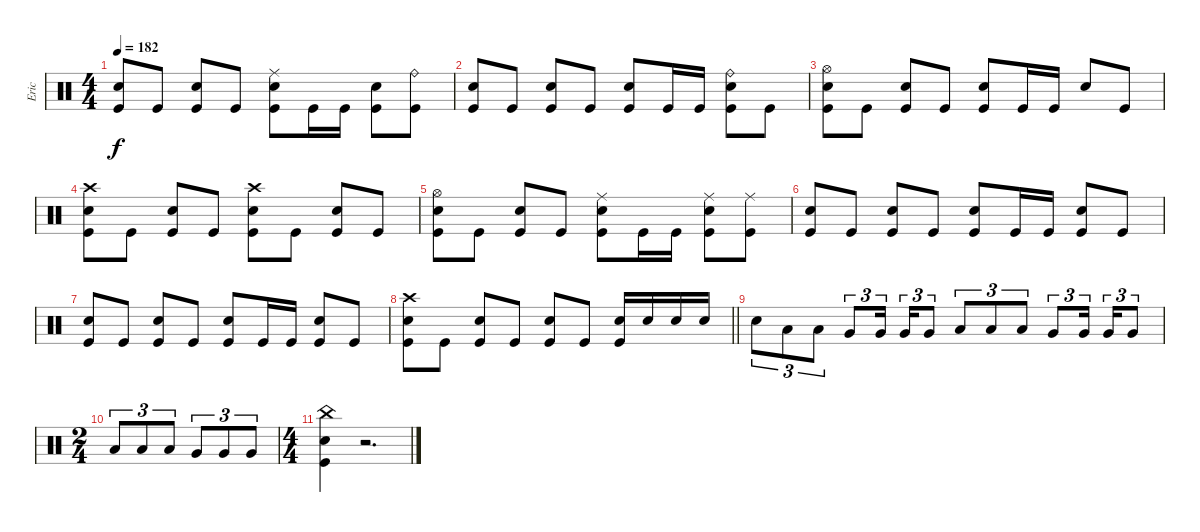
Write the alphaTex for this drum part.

\track ("Eric" "Eric") {instrument percussion}
\staff {score}
\articulation defaults
\ts (4 4)
\tempo 182
\clef neutral
\ks c
("Snare (hit) 2" "Kick (hit)").8{dy f} "Kick (hit)".8 ("Snare (hit) 2" "Kick (hit)").8 "Kick (hit)".8 ("Ride (middle)" "Snare (hit) 2" "Kick (hit)").8 "Kick (hit)".16 "Kick (hit)".16 ("Snare (hit) 2" "Kick (hit)").8 ("Ride (bell)" "Kick (hit)").8 |
("Snare (hit) 2" "Kick (hit)").8 "Kick (hit)".8 ("Snare (hit) 2" "Kick (hit)").8 "Kick (hit)".8 ("Snare (hit) 2" "Kick (hit)").8 "Kick (hit)".16 "Kick (hit)".16 ("Ride (bell)" "Snare (hit) 2" "Kick (hit)").8 "Kick (hit)".8 |
("Hi-Hat (open)" "Snare (hit) 2" "Kick (hit)").8 "Kick (hit)".8 ("Snare (hit) 2" "Kick (hit)").8 "Kick (hit)".8 ("Snare (hit) 2" "Kick (hit)").8 "Kick (hit)".16 "Kick (hit)".16 "Snare (hit) 2".8 "Kick (hit)".8 |
("Crash high (hit)" "Snare (hit) 2" "Kick (hit)").8 "Kick (hit)".8 ("Snare (hit) 2" "Kick (hit)").8 "Kick (hit)".8 ("Crash high (hit)" "Snare (hit) 2" "Kick (hit)").8 "Kick (hit)".8 ("Snare (hit) 2" "Kick (hit)").8 "Kick (hit)".8 |
("Hi-Hat (open)" "Snare (hit) 2" "Kick (hit)").8 "Kick (hit)".8 ("Snare (hit) 2" "Kick (hit)").8 "Kick (hit)".8 ("Ride (middle)" "Snare (hit) 2" "Kick (hit)").8 "Kick (hit)".16 "Kick (hit)".16 ("Ride (middle)" "Snare (hit) 2" "Kick (hit)").8 ("Ride (middle)" "Kick (hit)").8 |
("Snare (hit) 2" "Kick (hit)").8 "Kick (hit)".8 ("Snare (hit) 2" "Kick (hit)").8 "Kick (hit)".8 ("Snare (hit) 2" "Kick (hit)").8 "Kick (hit)".16 "Kick (hit)".16 ("Snare (hit) 2" "Kick (hit)").8 "Kick (hit)".8 |
("Snare (hit) 2" "Kick (hit)").8 "Kick (hit)".8 ("Snare (hit) 2" "Kick (hit)").8 "Kick (hit)".8 ("Snare (hit) 2" "Kick (hit)").8 "Kick (hit)".16 "Kick (hit)".16 ("Snare (hit) 2" "Kick (hit)").8 "Kick (hit)".8 |
\barLineRight lightlight
("Crash high (hit)" "Snare (hit) 2" "Kick (hit)").8 "Kick (hit)".8 ("Snare (hit) 2" "Kick (hit)").8 "Kick (hit)".8 ("Snare (hit) 2" "Kick (hit)").8 "Kick (hit)".8 ("Snare (hit) 2" "Kick (hit)").16 "Snare (hit) 2".16 "Snare (hit) 2".16 "Snare (hit) 2".16 |
"Snare (hit) 2".8{tu (3 2)} "Low Floor Tom (hit)".8{tu (3 2)} "Low Floor Tom (hit)".8{tu (3 2)} "Very Low Tom (hit)".8{tu (3 2)} "Very Low Tom (hit)".16{tu (3 2)} "Very Low Tom (hit)".16{tu (3 2)} "Very Low Tom (hit)".8{tu (3 2)} "Low Tom (hit)".8{tu (3 2)} "Low Tom (hit)".8{tu (3 2)} "Low Tom (hit)".8{tu (3 2)} "Very Low Tom (hit)".8{tu (3 2)} "Very Low Tom (hit)".16{tu (3 2)} "Very Low Tom (hit)".16{tu (3 2)} "Very Low Tom (hit)".8{tu (3 2)} |
\ts (2 4)
"Low Floor Tom (hit)".8{tu (3 2)} "Low Floor Tom (hit)".8{tu (3 2)} "Low Floor Tom (hit)".8{tu (3 2)} "Very Low Tom (hit)".8{tu (3 2)} "Very Low Tom (hit)".8{tu (3 2)} "Very Low Tom (hit)".8{tu (3 2)} |
\ts (4 4)
("China (hit)" "Snare (hit) 2" "Kick (hit)").4 r.2{d}
